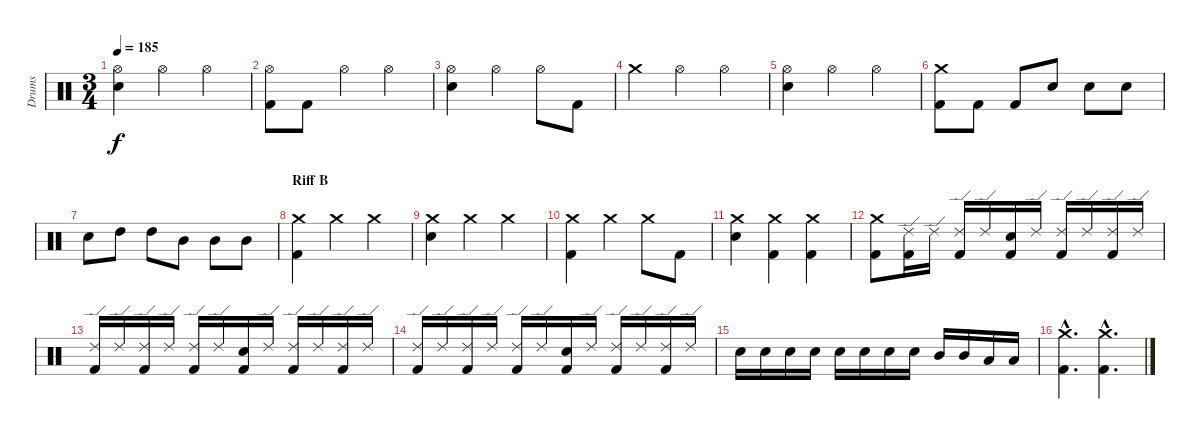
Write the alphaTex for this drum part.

\track ("Drums" "Drums") {instrument percussion}
\staff {score}
\articulation defaults
\ts (3 4)
\tempo 185
\clef neutral
\ks c
("Hi-Hat (open)" "Electric Snare (hit)").4{dy f} "Hi-Hat (open)".4 "Hi-Hat (open)".4 |
("Hi-Hat (open)" "Kick (hit) 2").8 "Kick (hit) 2".8 "Hi-Hat (open)".4 "Hi-Hat (open)".4 |
("Hi-Hat (open)" "Electric Snare (hit)").4 "Hi-Hat (open)".4 "Hi-Hat (open)".8 "Kick (hit) 2".8 |
"Crash medium (hit)".4 "Hi-Hat (open)".4 "Hi-Hat (open)".4 |
("Hi-Hat (open)" "Electric Snare (hit)").4 "Hi-Hat (open)".4 "Hi-Hat (open)".4 |
("Crash medium (hit)" "Kick (hit) 2").8 "Kick (hit) 2".8 "Kick (hit) 2".8 "Electric Snare (hit)".8 "Electric Snare (hit)".8 "Electric Snare (hit)".8 |
"Electric Snare (hit)".8 "High Tom (hit)".8 "High Tom (hit)".8 "Mid Tom (hit)".8 "Mid Tom (hit)".8 "Mid Tom (hit)".8 |
\section ("" "Riff B")
("Crash medium (hit)" "Kick (hit) 2").4 "Crash medium (hit)".4 "Crash medium (hit)".4 |
("Crash medium (hit)" "Electric Snare (hit)").4 "Crash medium (hit)".4 "Crash medium (hit)".4 |
("Crash medium (hit)" "Kick (hit) 2").4 "Crash medium (hit)".4 "Crash medium (hit)".8 "Kick (hit) 2".8 |
("Crash medium (hit)" "Electric Snare (hit)").4 ("Crash medium (hit)" "Kick (hit) 2").4 ("Crash medium (hit)" "Kick (hit) 2").4 |
("Crash medium (hit)" "Kick (hit) 2").8 ("Ride (edge) 2" "Kick (hit) 2").16 "Ride (edge) 2".16 ("Ride (edge) 2" "Kick (hit) 2").16 "Ride (edge) 2".16 ("Electric Snare (hit)" "Kick (hit) 2").16 "Ride (edge) 2".16 ("Ride (edge) 2" "Kick (hit) 2").16 "Ride (edge) 2".16 ("Ride (edge) 2" "Kick (hit) 2").16 "Ride (edge) 2".16 |
("Ride (edge) 2" "Kick (hit) 2").16 "Ride (edge) 2".16 ("Ride (edge) 2" "Kick (hit) 2").16 "Ride (edge) 2".16 ("Ride (edge) 2" "Kick (hit) 2").16 "Ride (edge) 2".16 ("Electric Snare (hit)" "Kick (hit) 2").16 "Ride (edge) 2".16 ("Ride (edge) 2" "Kick (hit) 2").16 "Ride (edge) 2".16 ("Ride (edge) 2" "Kick (hit) 2").16 "Ride (edge) 2".16 |
("Ride (edge) 2" "Kick (hit) 2").16 "Ride (edge) 2".16 ("Ride (edge) 2" "Kick (hit) 2").16 "Ride (edge) 2".16 ("Ride (edge) 2" "Kick (hit) 2").16 "Ride (edge) 2".16 ("Electric Snare (hit)" "Kick (hit) 2").16 "Ride (edge) 2".16 ("Ride (edge) 2" "Kick (hit) 2").16 "Ride (edge) 2".16 ("Ride (edge) 2" "Kick (hit) 2").16 "Ride (edge) 2".16 |
"Electric Snare (hit)".16 "Electric Snare (hit)".16 "Electric Snare (hit)".16 "Electric Snare (hit)".16 "Electric Snare (hit)".16 "Electric Snare (hit)".16 "Electric Snare (hit)".16 "Electric Snare (hit)".16 "Mid Tom (hit)".16 "Mid Tom (hit)".16 "Low Tom (hit)".16 "Low Tom (hit)".16 |
("Crash medium (hit)"{hac} "Kick (hit) 2"{hac}).4{d} ("Crash medium (hit)"{hac} "Kick (hit) 2"{hac}).4{d}
